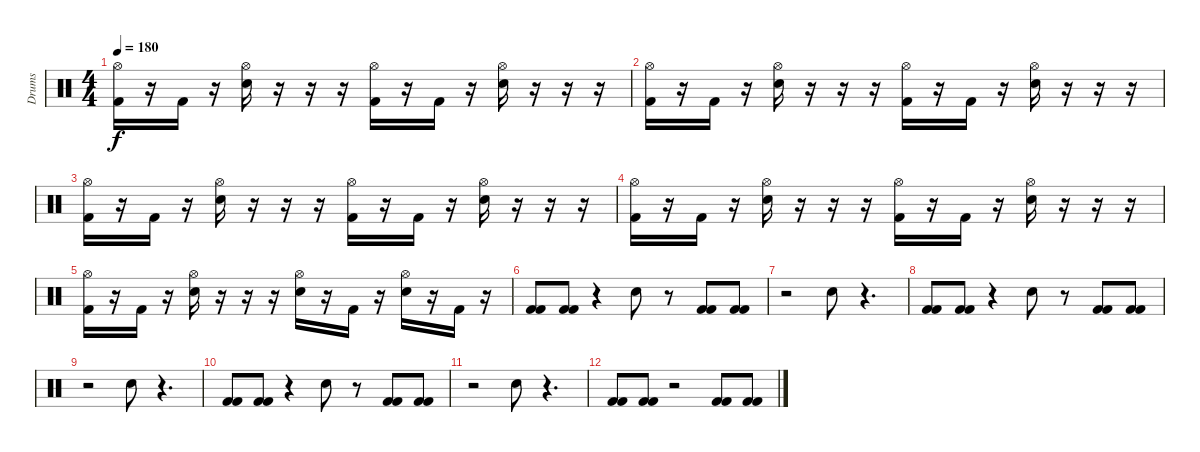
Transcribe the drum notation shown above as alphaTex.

\track ("Drums" "Drums") {instrument percussion}
\staff {score}
\articulation defaults
\ts (4 4)
\tempo 180
\clef neutral
\ks c
("Hi-Hat (open)" "Kick (hit) 2").16{dy f} r.16 "Kick (hit) 2".16 r.16 ("Hi-Hat (open)" "Snare (hit) 2").16 r.16 r.16 r.16 ("Hi-Hat (open)" "Kick (hit) 2").16 r.16 "Kick (hit) 2".16 r.16 ("Hi-Hat (open)" "Snare (hit) 2").16 r.16 r.16 r.16 |
("Hi-Hat (open)" "Kick (hit) 2").16 r.16 "Kick (hit) 2".16 r.16 ("Hi-Hat (open)" "Snare (hit) 2").16 r.16 r.16 r.16 ("Hi-Hat (open)" "Kick (hit) 2").16 r.16 "Kick (hit) 2".16 r.16 ("Hi-Hat (open)" "Snare (hit) 2").16 r.16 r.16 r.16 |
("Hi-Hat (open)" "Kick (hit) 2").16 r.16 "Kick (hit) 2".16 r.16 ("Hi-Hat (open)" "Snare (hit) 2").16 r.16 r.16 r.16 ("Hi-Hat (open)" "Kick (hit) 2").16 r.16 "Kick (hit) 2".16 r.16 ("Hi-Hat (open)" "Snare (hit) 2").16 r.16 r.16 r.16 |
("Hi-Hat (open)" "Kick (hit) 2").16 r.16 "Kick (hit) 2".16 r.16 ("Hi-Hat (open)" "Snare (hit) 2").16 r.16 r.16 r.16 ("Hi-Hat (open)" "Kick (hit) 2").16 r.16 "Kick (hit) 2".16 r.16 ("Hi-Hat (open)" "Snare (hit) 2").16 r.16 r.16 r.16 |
("Hi-Hat (open)" "Kick (hit) 2").16 r.16 "Kick (hit) 2".16 r.16 ("Hi-Hat (open)" "Snare (hit) 2").16 r.16 r.16 r.16 ("Hi-Hat (open)" "Snare (hit) 2").16 r.16 "Kick (hit) 2".16 r.16 ("Hi-Hat (open)" "Snare (hit) 2").16 r.16 "Kick (hit) 2".16 r.16 |
("Kick (hit) 2" "Kick (hit) 2").8 ("Kick (hit) 2" "Kick (hit) 2").8 r.4 "Snare (hit) 2".8 r.8 ("Kick (hit) 2" "Kick (hit) 2").8 ("Kick (hit) 2" "Kick (hit) 2").8 |
r.2 "Snare (hit) 2".8 r.4{d} |
("Kick (hit) 2" "Kick (hit) 2").8 ("Kick (hit) 2" "Kick (hit) 2").8 r.4 "Snare (hit) 2".8 r.8 ("Kick (hit) 2" "Kick (hit) 2").8 ("Kick (hit) 2" "Kick (hit) 2").8 |
r.2 "Snare (hit) 2".8 r.4{d} |
("Kick (hit) 2" "Kick (hit) 2").8 ("Kick (hit) 2" "Kick (hit) 2").8 r.4 "Snare (hit) 2".8 r.8 ("Kick (hit) 2" "Kick (hit) 2").8 ("Kick (hit) 2" "Kick (hit) 2").8 |
r.2 "Snare (hit) 2".8 r.4{d} |
("Kick (hit) 2" "Kick (hit) 2").8 ("Kick (hit) 2" "Kick (hit) 2").8 r.2 ("Kick (hit) 2" "Kick (hit) 2").8 ("Kick (hit) 2" "Kick (hit) 2").8
